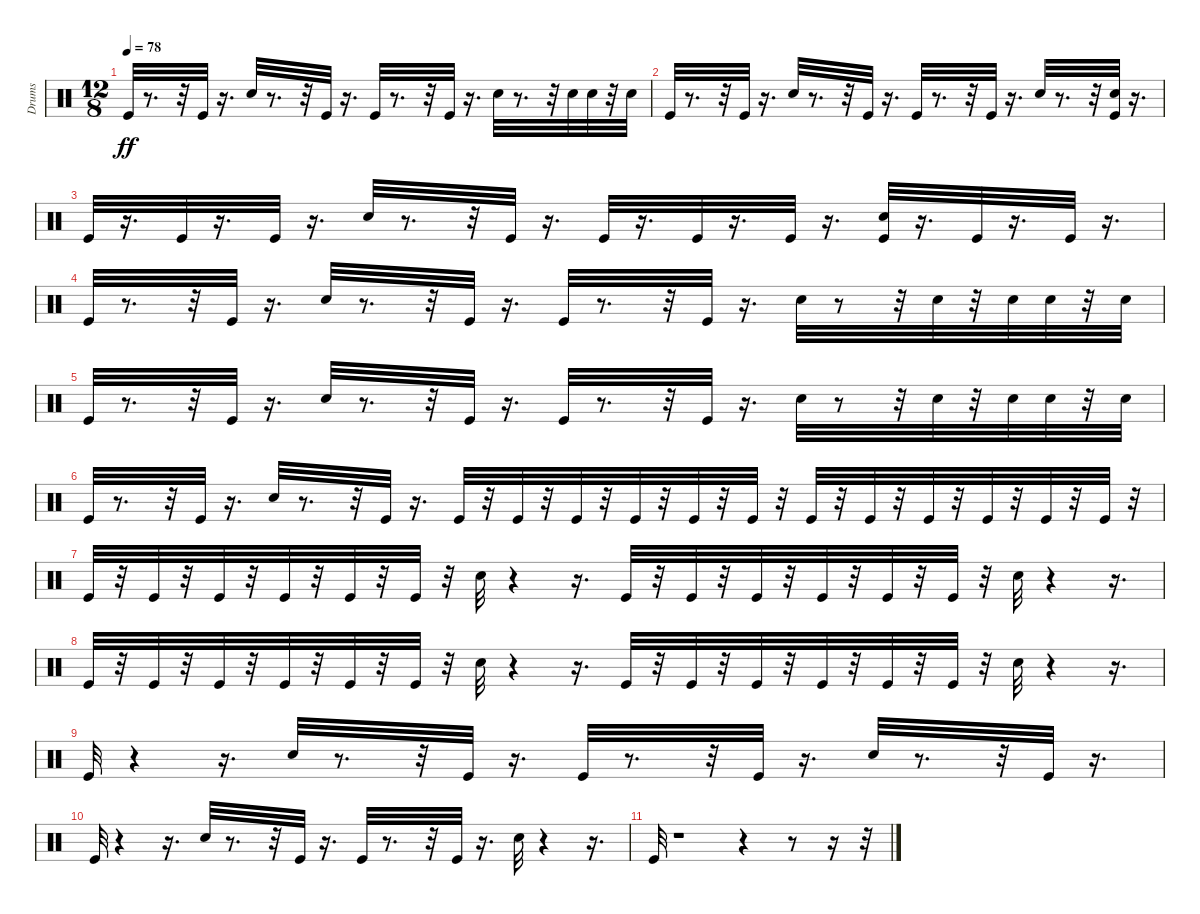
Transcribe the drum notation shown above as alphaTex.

\track ("Drums" "Drums") {instrument percussion}
\staff {score}
\articulation defaults
\ts (12 8)
\tempo 78
\clef neutral
\ks c "Kick (hit)".32{dy ff}
r.8{d} r.32 "Kick (hit)".32 r.16{d} "Electric Snare (hit)".32 r.8{d} r.32 "Kick (hit)".32 r.16{d} "Kick (hit)".32 r.8{d} r.32 "Kick (hit)".32 r.16{d} "Electric Snare (hit)".32 r.8{d} r.32 "Electric Snare (hit)".32 "Electric Snare (hit)".32 r.32 "Electric Snare (hit)".32 |
"Kick (hit)".32 r.8{d} r.32 "Kick (hit)".32 r.16{d} "Electric Snare (hit)".32 r.8{d} r.32 "Kick (hit)".32 r.16{d} "Kick (hit)".32 r.8{d} r.32 "Kick (hit)".32 r.16{d} "Electric Snare (hit)".32 r.8{d} r.32 ("Kick (hit)" "Electric Snare (hit)").32 r.16{d} |
"Kick (hit)".32 r.16{d} "Kick (hit)".32 r.16{d} "Kick (hit)".32 r.16{d} "Electric Snare (hit)".32 r.8{d} r.32 "Kick (hit)".32 r.16{d} "Kick (hit)".32 r.16{d} "Kick (hit)".32 r.16{d} "Kick (hit)".32 r.16{d} ("Electric Snare (hit)" "Kick (hit)").32 r.16{d} "Kick (hit)".32 r.16{d} "Kick (hit)".32 r.16{d} |
"Kick (hit)".32 r.8{d} r.32 "Kick (hit)".32 r.16{d} "Electric Snare (hit)".32 r.8{d} r.32 "Kick (hit)".32 r.16{d} "Kick (hit)".32 r.8{d} r.32 "Kick (hit)".32 r.16{d} "Electric Snare (hit)".32 r.8 r.32 "Electric Snare (hit)".32 r.32 "Electric Snare (hit)".32 "Electric Snare (hit)".32 r.32 "Electric Snare (hit)".32 |
"Kick (hit)".32 r.8{d} r.32 "Kick (hit)".32 r.16{d} "Electric Snare (hit)".32 r.8{d} r.32 "Kick (hit)".32 r.16{d} "Kick (hit)".32 r.8{d} r.32 "Kick (hit)".32 r.16{d} "Electric Snare (hit)".32 r.8 r.32 "Electric Snare (hit)".32 r.32 "Electric Snare (hit)".32 "Electric Snare (hit)".32 r.32 "Electric Snare (hit)".32 |
"Kick (hit)".32 r.8{d} r.32 "Kick (hit)".32 r.16{d} "Electric Snare (hit)".32 r.8{d} r.32 "Kick (hit)".32 r.16{d} "Kick (hit)".32 r.32 "Kick (hit)".32 r.32 "Kick (hit)".32 r.32 "Kick (hit)".32 r.32 "Kick (hit)".32 r.32 "Kick (hit)".32 r.32 "Kick (hit)".32 r.32 "Kick (hit)".32 r.32 "Kick (hit)".32 r.32 "Kick (hit)".32 r.32 "Kick (hit)".32 r.32 "Kick (hit)".32 r.32 |
"Kick (hit)".32 r.32 "Kick (hit)".32 r.32 "Kick (hit)".32 r.32 "Kick (hit)".32 r.32 "Kick (hit)".32 r.32 "Kick (hit)".32 r.32 "Electric Snare (hit)".32 r.4 r.16{d} "Kick (hit)".32 r.32 "Kick (hit)".32 r.32 "Kick (hit)".32 r.32 "Kick (hit)".32 r.32 "Kick (hit)".32 r.32 "Kick (hit)".32 r.32 "Electric Snare (hit)".32 r.4 r.16{d} |
"Kick (hit)".32 r.32 "Kick (hit)".32 r.32 "Kick (hit)".32 r.32 "Kick (hit)".32 r.32 "Kick (hit)".32 r.32 "Kick (hit)".32 r.32 "Electric Snare (hit)".32 r.4 r.16{d} "Kick (hit)".32 r.32 "Kick (hit)".32 r.32 "Kick (hit)".32 r.32 "Kick (hit)".32 r.32 "Kick (hit)".32 r.32 "Kick (hit)".32 r.32 "Electric Snare (hit)".32 r.4 r.16{d} |
"Kick (hit)".32 r.4 r.16{d} "Electric Snare (hit)".32 r.8{d} r.32 "Kick (hit)".32 r.16{d} "Kick (hit)".32 r.8{d} r.32 "Kick (hit)".32 r.16{d} "Electric Snare (hit)".32 r.8{d} r.32 "Kick (hit)".32 r.16{d} |
"Kick (hit)".32 r.4 r.16{d} "Electric Snare (hit)".32 r.8{d} r.32 "Kick (hit)".32 r.16{d} "Kick (hit)".32 r.8{d} r.32 "Kick (hit)".32 r.16{d} "Electric Snare (hit)".32 r.4 r.16{d} |
"Kick (hit)".32 r.1 r.4 r.8 r.16 r.32
